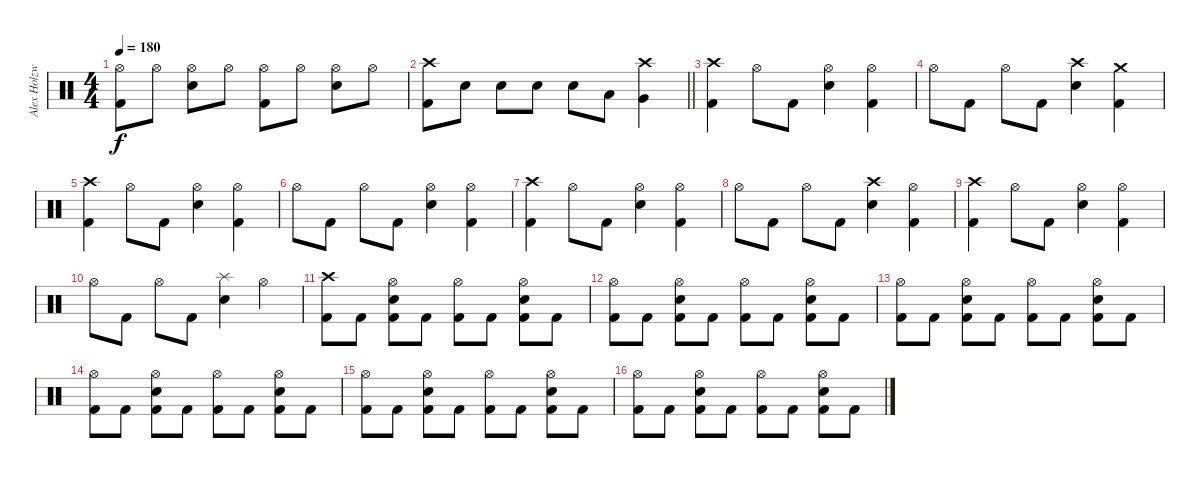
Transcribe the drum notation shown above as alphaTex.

\track ("Alex Holzwarth" "Alex Holzw") {instrument percussion}
\staff {score}
\articulation defaults
\ts (4 4)
\tempo 180
\clef neutral
\ks c
("Hi-Hat (open)" "Kick (hit) 2").8{dy f} "Hi-Hat (open)".8 ("Hi-Hat (open)" "Electric Snare (hit)").8 "Hi-Hat (open)".8 ("Hi-Hat (open)" "Kick (hit) 2").8 "Hi-Hat (open)".8 ("Hi-Hat (open)" "Electric Snare (hit)").8 "Hi-Hat (open)".8 |
\barLineRight lightlight
("Crash high (hit)" "Kick (hit) 2").8 "Electric Snare (hit)".8 "Electric Snare (hit)".8 "Electric Snare (hit)".8 "Electric Snare (hit)".8 "Low Tom (hit)".8 ("Crash high (hit)" "Very Low Tom (hit)").4 |
("Crash high (hit)" "Kick (hit) 2").4 "Hi-Hat (open)".8 "Kick (hit) 2".8 ("Hi-Hat (open)" "Electric Snare (hit)").4 ("Hi-Hat (open)" "Kick (hit) 2").4 |
"Hi-Hat (open)".8 "Kick (hit) 2".8 "Hi-Hat (open)".8 "Kick (hit) 2".8 ("Crash high (hit)" "Electric Snare (hit)").4 ("Crash medium (hit)" "Kick (hit) 2").4 |
("Crash high (hit)" "Kick (hit) 2").4 "Hi-Hat (open)".8 "Kick (hit) 2".8 ("Hi-Hat (open)" "Electric Snare (hit)").4 ("Hi-Hat (open)" "Kick (hit) 2").4 |
"Hi-Hat (open)".8 "Kick (hit) 2".8 "Hi-Hat (open)".8 "Kick (hit) 2".8 ("Hi-Hat (open)" "Electric Snare (hit)").4 ("Hi-Hat (open)" "Kick (hit) 2").4 |
("Crash high (hit)" "Kick (hit) 2").4 "Hi-Hat (open)".8 "Kick (hit) 2".8 ("Hi-Hat (open)" "Electric Snare (hit)").4 ("Hi-Hat (open)" "Kick (hit) 2").4 |
"Hi-Hat (open)".8 "Kick (hit) 2".8 "Hi-Hat (open)".8 "Kick (hit) 2".8 ("Crash high (hit)" "Electric Snare (hit)").4 ("Hi-Hat (open)" "Kick (hit) 2").4 |
("Crash high (hit)" "Kick (hit) 2").4 "Hi-Hat (open)".8 "Kick (hit) 2".8 ("Hi-Hat (open)" "Electric Snare (hit)").4 ("Hi-Hat (open)" "Kick (hit) 2").4 |
"Hi-Hat (open)".8 "Kick (hit) 2".8 "Hi-Hat (open)".8 "Kick (hit) 2".8 ("Splash (hit)" "Electric Snare (hit)").4 "Hi-Hat (open)".4 |
("Crash high (hit)" "Kick (hit) 2").8 "Kick (hit) 2".8 ("Hi-Hat (open)" "Electric Snare (hit)" "Kick (hit) 2").8 "Kick (hit) 2".8 ("Hi-Hat (open)" "Kick (hit) 2").8 "Kick (hit) 2".8 ("Hi-Hat (open)" "Electric Snare (hit)" "Kick (hit) 2").8 "Kick (hit) 2".8 |
("Hi-Hat (open)" "Kick (hit) 2").8 "Kick (hit) 2".8 ("Hi-Hat (open)" "Electric Snare (hit)" "Kick (hit) 2").8 "Kick (hit) 2".8 ("Hi-Hat (open)" "Kick (hit) 2").8 "Kick (hit) 2".8 ("Hi-Hat (open)" "Electric Snare (hit)" "Kick (hit) 2").8 "Kick (hit) 2".8 |
("Hi-Hat (open)" "Kick (hit) 2").8 "Kick (hit) 2".8 ("Hi-Hat (open)" "Electric Snare (hit)" "Kick (hit) 2").8 "Kick (hit) 2".8 ("Hi-Hat (open)" "Kick (hit) 2").8 "Kick (hit) 2".8 ("Hi-Hat (open)" "Electric Snare (hit)" "Kick (hit) 2").8 "Kick (hit) 2".8 |
("Hi-Hat (open)" "Kick (hit) 2").8 "Kick (hit) 2".8 ("Hi-Hat (open)" "Electric Snare (hit)" "Kick (hit) 2").8 "Kick (hit) 2".8 ("Hi-Hat (open)" "Kick (hit) 2").8 "Kick (hit) 2".8 ("Hi-Hat (open)" "Electric Snare (hit)" "Kick (hit) 2").8 "Kick (hit) 2".8 |
("Hi-Hat (open)" "Kick (hit) 2").8 "Kick (hit) 2".8 ("Hi-Hat (open)" "Electric Snare (hit)" "Kick (hit) 2").8 "Kick (hit) 2".8 ("Hi-Hat (open)" "Kick (hit) 2").8 "Kick (hit) 2".8 ("Hi-Hat (open)" "Electric Snare (hit)" "Kick (hit) 2").8 "Kick (hit) 2".8 |
("Hi-Hat (open)" "Kick (hit) 2").8 "Kick (hit) 2".8 ("Hi-Hat (open)" "Electric Snare (hit)" "Kick (hit) 2").8 "Kick (hit) 2".8 ("Hi-Hat (open)" "Kick (hit) 2").8 "Kick (hit) 2".8 ("Hi-Hat (open)" "Electric Snare (hit)" "Kick (hit) 2").8 "Kick (hit) 2".8
